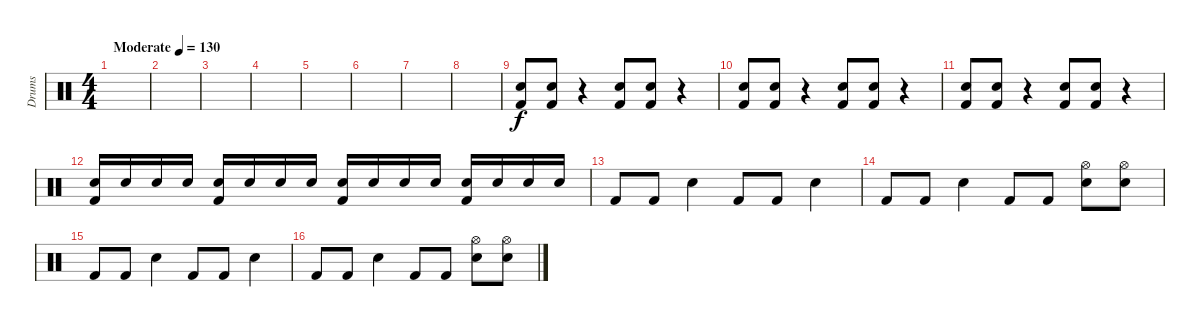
\track ("Drums" "Drums") {instrument percussion}
\staff {score}
\articulation defaults
\ts (4 4)
\tempo (130 "Moderate")
\clef neutral
\ks c
|
|
|
|
|
|
|
|
("Kick (hit) 2" "Snare (hit) 2").8 ("Kick (hit) 2" "Snare (hit) 2").8 r.4 ("Kick (hit) 2" "Snare (hit) 2").8 ("Kick (hit) 2" "Snare (hit) 2").8 r.4 |
("Kick (hit) 2" "Snare (hit) 2").8 ("Kick (hit) 2" "Snare (hit) 2").8 r.4 ("Kick (hit) 2" "Snare (hit) 2").8 ("Kick (hit) 2" "Snare (hit) 2").8 r.4 |
("Kick (hit) 2" "Snare (hit) 2").8 ("Kick (hit) 2" "Snare (hit) 2").8 r.4 ("Kick (hit) 2" "Snare (hit) 2").8 ("Kick (hit) 2" "Snare (hit) 2").8 r.4 |
("Kick (hit) 2" "Snare (hit) 2").16 "Snare (hit) 2".16 "Snare (hit) 2".16 "Snare (hit) 2".16 ("Kick (hit) 2" "Snare (hit) 2").16 "Snare (hit) 2".16 "Snare (hit) 2".16 "Snare (hit) 2".16 ("Kick (hit) 2" "Snare (hit) 2").16 "Snare (hit) 2".16 "Snare (hit) 2".16 "Snare (hit) 2".16 ("Kick (hit) 2" "Snare (hit) 2").16 "Snare (hit) 2".16 "Snare (hit) 2".16 "Snare (hit) 2".16 |
"Kick (hit) 2".8 "Kick (hit) 2".8 "Snare (hit) 2".4 "Kick (hit) 2".8 "Kick (hit) 2".8 "Snare (hit) 2".4 |
"Kick (hit) 2".8 "Kick (hit) 2".8 "Snare (hit) 2".4 "Kick (hit) 2".8 "Kick (hit) 2".8 ("Snare (hit) 2" "Hi-Hat (open)").8 ("Snare (hit) 2" "Hi-Hat (open)").8 |
"Kick (hit) 2".8 "Kick (hit) 2".8 "Snare (hit) 2".4 "Kick (hit) 2".8 "Kick (hit) 2".8 "Snare (hit) 2".4 |
"Kick (hit) 2".8 "Kick (hit) 2".8 "Snare (hit) 2".4 "Kick (hit) 2".8 "Kick (hit) 2".8 ("Snare (hit) 2" "Hi-Hat (open)").8 ("Snare (hit) 2" "Hi-Hat (open)").8
